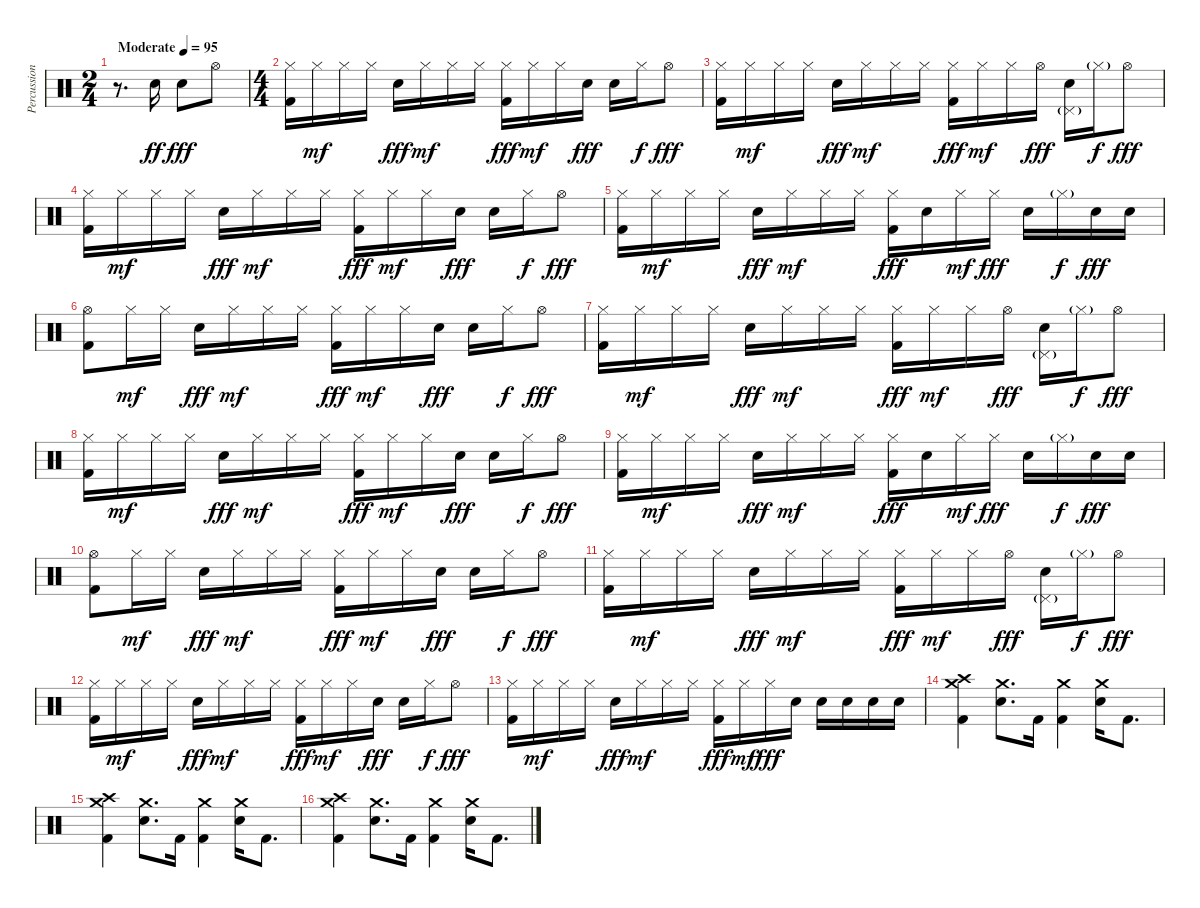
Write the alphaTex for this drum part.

\track ("Percussion" "Percussion") {instrument percussion}
\staff {score}
\articulation defaults
\ts (2 4)
\tempo (95 "Moderate")
\clef neutral
\ks c
r.8{d dy ff} "Electric Snare (hit)".16 "Electric Snare (hit)".8{dy fff} "Hi-Hat (open)".8 |
\ts (4 4)
("Hi-Hat (closed)" "Kick (hit) 2").16 "Hi-Hat (closed)".16{dy mf} "Hi-Hat (closed)".16 "Hi-Hat (closed)".16 "Electric Snare (hit)".16{dy fff} "Hi-Hat (closed)".16{dy mf} "Hi-Hat (closed)".16 "Hi-Hat (closed)".16 ("Hi-Hat (closed)" "Kick (hit) 2").16{dy fff} "Hi-Hat (closed)".16{dy mf} "Hi-Hat (closed)".16 "Electric Snare (hit)".16{dy fff} "Electric Snare (hit)".16 "Hi-Hat (closed)".16{dy f} "Hi-Hat (open)".8{dy fff} |
("Hi-Hat (closed)" "Kick (hit) 2").16 "Hi-Hat (closed)".16{dy mf} "Hi-Hat (closed)".16 "Hi-Hat (closed)".16 "Electric Snare (hit)".16{dy fff} "Hi-Hat (closed)".16{dy mf} "Hi-Hat (closed)".16 "Hi-Hat (closed)".16 ("Hi-Hat (closed)" "Kick (hit) 2").16{dy fff} "Hi-Hat (closed)".16{dy mf} "Hi-Hat (closed)".16 "Hi-Hat (open)".16{dy fff} ("Pedal Hi-Hat (hit)"{g} "Electric Snare (hit)").16 "Hi-Hat (closed)"{g}.16{dy f} "Hi-Hat (open)".8{dy fff} |
("Hi-Hat (closed)" "Kick (hit) 2").16 "Hi-Hat (closed)".16{dy mf} "Hi-Hat (closed)".16 "Hi-Hat (closed)".16 "Electric Snare (hit)".16{dy fff} "Hi-Hat (closed)".16{dy mf} "Hi-Hat (closed)".16 "Hi-Hat (closed)".16 ("Hi-Hat (closed)" "Kick (hit) 2").16{dy fff} "Hi-Hat (closed)".16{dy mf} "Hi-Hat (closed)".16 "Electric Snare (hit)".16{dy fff} "Electric Snare (hit)".16 "Hi-Hat (closed)".16{dy f} "Hi-Hat (open)".8{dy fff} |
("Hi-Hat (closed)" "Kick (hit) 2").16 "Hi-Hat (closed)".16{dy mf} "Hi-Hat (closed)".16 "Hi-Hat (closed)".16 "Electric Snare (hit)".16{dy fff} "Hi-Hat (closed)".16{dy mf} "Hi-Hat (closed)".16 "Hi-Hat (closed)".16 ("Hi-Hat (closed)" "Kick (hit) 2").16{dy fff} "Electric Snare (hit)".16 "Hi-Hat (closed)".16{dy mf} "Hi-Hat (closed)".16{dy fff} "Electric Snare (hit)".16 "Hi-Hat (closed)"{g}.16{dy f} "Electric Snare (hit)".16{dy fff} "Electric Snare (hit)".16 |
("Hi-Hat (open)" "Kick (hit) 2").8 "Hi-Hat (closed)".16{dy mf} "Hi-Hat (closed)".16 "Electric Snare (hit)".16{dy fff} "Hi-Hat (closed)".16{dy mf} "Hi-Hat (closed)".16 "Hi-Hat (closed)".16 ("Hi-Hat (closed)" "Kick (hit) 2").16{dy fff} "Hi-Hat (closed)".16{dy mf} "Hi-Hat (closed)".16 "Electric Snare (hit)".16{dy fff} "Electric Snare (hit)".16 "Hi-Hat (closed)".16{dy f} "Hi-Hat (open)".8{dy fff} |
("Hi-Hat (closed)" "Kick (hit) 2").16 "Hi-Hat (closed)".16{dy mf} "Hi-Hat (closed)".16 "Hi-Hat (closed)".16 "Electric Snare (hit)".16{dy fff} "Hi-Hat (closed)".16{dy mf} "Hi-Hat (closed)".16 "Hi-Hat (closed)".16 ("Hi-Hat (closed)" "Kick (hit) 2").16{dy fff} "Hi-Hat (closed)".16{dy mf} "Hi-Hat (closed)".16 "Hi-Hat (open)".16{dy fff} ("Pedal Hi-Hat (hit)"{g} "Electric Snare (hit)").16 "Hi-Hat (closed)"{g}.16{dy f} "Hi-Hat (open)".8{dy fff} |
("Hi-Hat (closed)" "Kick (hit) 2").16 "Hi-Hat (closed)".16{dy mf} "Hi-Hat (closed)".16 "Hi-Hat (closed)".16 "Electric Snare (hit)".16{dy fff} "Hi-Hat (closed)".16{dy mf} "Hi-Hat (closed)".16 "Hi-Hat (closed)".16 ("Hi-Hat (closed)" "Kick (hit) 2").16{dy fff} "Hi-Hat (closed)".16{dy mf} "Hi-Hat (closed)".16 "Electric Snare (hit)".16{dy fff} "Electric Snare (hit)".16 "Hi-Hat (closed)".16{dy f} "Hi-Hat (open)".8{dy fff} |
("Hi-Hat (closed)" "Kick (hit) 2").16 "Hi-Hat (closed)".16{dy mf} "Hi-Hat (closed)".16 "Hi-Hat (closed)".16 "Electric Snare (hit)".16{dy fff} "Hi-Hat (closed)".16{dy mf} "Hi-Hat (closed)".16 "Hi-Hat (closed)".16 ("Hi-Hat (closed)" "Kick (hit) 2").16{dy fff} "Electric Snare (hit)".16 "Hi-Hat (closed)".16{dy mf} "Hi-Hat (closed)".16{dy fff} "Electric Snare (hit)".16 "Hi-Hat (closed)"{g}.16{dy f} "Electric Snare (hit)".16{dy fff} "Electric Snare (hit)".16 |
("Hi-Hat (open)" "Kick (hit) 2").8 "Hi-Hat (closed)".16{dy mf} "Hi-Hat (closed)".16 "Electric Snare (hit)".16{dy fff} "Hi-Hat (closed)".16{dy mf} "Hi-Hat (closed)".16 "Hi-Hat (closed)".16 ("Hi-Hat (closed)" "Kick (hit) 2").16{dy fff} "Hi-Hat (closed)".16{dy mf} "Hi-Hat (closed)".16 "Electric Snare (hit)".16{dy fff} "Electric Snare (hit)".16 "Hi-Hat (closed)".16{dy f} "Hi-Hat (open)".8{dy fff} |
("Hi-Hat (closed)" "Kick (hit) 2").16 "Hi-Hat (closed)".16{dy mf} "Hi-Hat (closed)".16 "Hi-Hat (closed)".16 "Electric Snare (hit)".16{dy fff} "Hi-Hat (closed)".16{dy mf} "Hi-Hat (closed)".16 "Hi-Hat (closed)".16 ("Hi-Hat (closed)" "Kick (hit) 2").16{dy fff} "Hi-Hat (closed)".16{dy mf} "Hi-Hat (closed)".16 "Hi-Hat (open)".16{dy fff} ("Pedal Hi-Hat (hit)"{g} "Electric Snare (hit)").16 "Hi-Hat (closed)"{g}.16{dy f} "Hi-Hat (open)".8{dy fff} |
("Hi-Hat (closed)" "Kick (hit) 2").16 "Hi-Hat (closed)".16{dy mf} "Hi-Hat (closed)".16 "Hi-Hat (closed)".16 "Electric Snare (hit)".16{dy fff} "Hi-Hat (closed)".16{dy mf} "Hi-Hat (closed)".16 "Hi-Hat (closed)".16 ("Hi-Hat (closed)" "Kick (hit) 2").16{dy fff} "Hi-Hat (closed)".16{dy mf} "Hi-Hat (closed)".16 "Electric Snare (hit)".16{dy fff} "Electric Snare (hit)".16 "Hi-Hat (closed)".16{dy f} "Hi-Hat (open)".8{dy fff} |
("Hi-Hat (closed)" "Kick (hit) 2").16 "Hi-Hat (closed)".16{dy mf} "Hi-Hat (closed)".16 "Hi-Hat (closed)".16 "Electric Snare (hit)".16{dy fff} "Hi-Hat (closed)".16{dy mf} "Hi-Hat (closed)".16 "Hi-Hat (closed)".16 ("Hi-Hat (closed)" "Kick (hit) 2").16{dy fff} "Hi-Hat (closed)".16{dy mf} "Hi-Hat (closed)".16{dy fff} "Electric Snare (hit)".16 "Electric Snare (hit)".16 "Electric Snare (hit)".16 "Electric Snare (hit)".16 "Electric Snare (hit)".16 |
("Crash high (hit)" "Crash medium (hit)" "Kick (hit) 2").4 ("Crash medium (hit)" "Electric Snare (hit)").8{d} "Kick (hit) 2".16 ("Crash medium (hit)" "Kick (hit) 2").4 ("Crash medium (hit)" "Electric Snare (hit)").16 "Kick (hit) 2".8{d} |
("Crash high (hit)" "Crash medium (hit)" "Kick (hit) 2").4 ("Crash medium (hit)" "Electric Snare (hit)").8{d} "Kick (hit) 2".16 ("Crash medium (hit)" "Kick (hit) 2").4 ("Crash medium (hit)" "Electric Snare (hit)").16 "Kick (hit) 2".8{d} |
("Crash high (hit)" "Crash medium (hit)" "Kick (hit) 2").4 ("Crash medium (hit)" "Electric Snare (hit)").8{d} "Kick (hit) 2".16 ("Crash medium (hit)" "Kick (hit) 2").4 ("Crash medium (hit)" "Electric Snare (hit)").16 "Kick (hit) 2".8{d}
